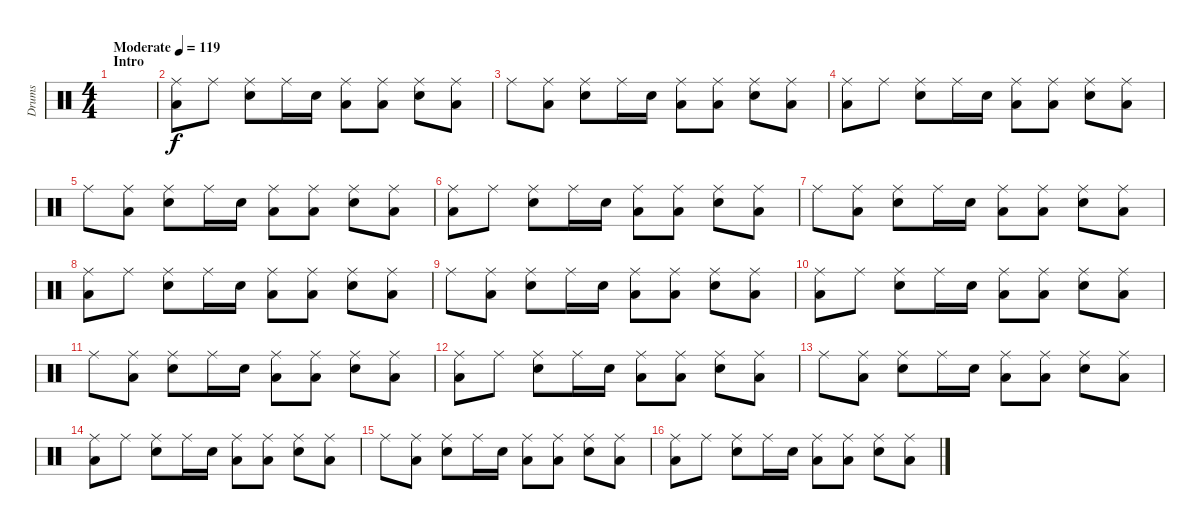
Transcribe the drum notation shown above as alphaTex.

\track ("Drums" "Drums") {instrument percussion}
\staff {score}
\articulation defaults
\ts (4 4)
\section ("" "Intro")
\tempo (119 "Moderate")
\clef neutral
\ks c
|
("Ride (middle)" "Low Floor Tom (hit)").8 "Ride (middle)".8 ("Ride (middle)" "Electric Snare (hit)").8 "Ride (middle)".16 "Electric Snare (hit)".16 ("Ride (middle)" "Low Floor Tom (hit)").8 ("Ride (middle)" "Low Floor Tom (hit)").8 ("Ride (middle)" "Electric Snare (hit)").8 ("Ride (middle)" "Low Floor Tom (hit)").8 |
"Ride (middle)".8 ("Ride (middle)" "Low Floor Tom (hit)").8 ("Ride (middle)" "Electric Snare (hit)").8 "Ride (middle)".16 "Electric Snare (hit)".16 ("Ride (middle)" "Low Floor Tom (hit)").8 ("Ride (middle)" "Low Floor Tom (hit)").8 ("Ride (middle)" "Electric Snare (hit)").8 ("Ride (middle)" "Low Floor Tom (hit)").8 |
("Ride (middle)" "Low Floor Tom (hit)").8 "Ride (middle)".8 ("Ride (middle)" "Electric Snare (hit)").8 "Ride (middle)".16 "Electric Snare (hit)".16 ("Ride (middle)" "Low Floor Tom (hit)").8 ("Ride (middle)" "Low Floor Tom (hit)").8 ("Ride (middle)" "Electric Snare (hit)").8 ("Ride (middle)" "Low Floor Tom (hit)").8 |
"Ride (middle)".8 ("Ride (middle)" "Low Floor Tom (hit)").8 ("Ride (middle)" "Electric Snare (hit)").8 "Ride (middle)".16 "Electric Snare (hit)".16 ("Ride (middle)" "Low Floor Tom (hit)").8 ("Ride (middle)" "Low Floor Tom (hit)").8 ("Ride (middle)" "Electric Snare (hit)").8 ("Ride (middle)" "Low Floor Tom (hit)").8 |
("Ride (middle)" "Low Floor Tom (hit)").8 "Ride (middle)".8 ("Ride (middle)" "Electric Snare (hit)").8 "Ride (middle)".16 "Electric Snare (hit)".16 ("Ride (middle)" "Low Floor Tom (hit)").8 ("Ride (middle)" "Low Floor Tom (hit)").8 ("Ride (middle)" "Electric Snare (hit)").8 ("Ride (middle)" "Low Floor Tom (hit)").8 |
"Ride (middle)".8 ("Ride (middle)" "Low Floor Tom (hit)").8 ("Ride (middle)" "Electric Snare (hit)").8 "Ride (middle)".16 "Electric Snare (hit)".16 ("Ride (middle)" "Low Floor Tom (hit)").8 ("Ride (middle)" "Low Floor Tom (hit)").8 ("Ride (middle)" "Electric Snare (hit)").8 ("Ride (middle)" "Low Floor Tom (hit)").8 |
("Ride (middle)" "Low Floor Tom (hit)").8 "Ride (middle)".8 ("Ride (middle)" "Electric Snare (hit)").8 "Ride (middle)".16 "Electric Snare (hit)".16 ("Ride (middle)" "Low Floor Tom (hit)").8 ("Ride (middle)" "Low Floor Tom (hit)").8 ("Ride (middle)" "Electric Snare (hit)").8 ("Ride (middle)" "Low Floor Tom (hit)").8 |
"Ride (middle)".8 ("Ride (middle)" "Low Floor Tom (hit)").8 ("Ride (middle)" "Electric Snare (hit)").8 "Ride (middle)".16 "Electric Snare (hit)".16 ("Ride (middle)" "Low Floor Tom (hit)").8 ("Ride (middle)" "Low Floor Tom (hit)").8 ("Ride (middle)" "Electric Snare (hit)").8 ("Ride (middle)" "Low Floor Tom (hit)").8 |
("Ride (middle)" "Low Floor Tom (hit)").8 "Ride (middle)".8 ("Ride (middle)" "Electric Snare (hit)").8 "Ride (middle)".16 "Electric Snare (hit)".16 ("Ride (middle)" "Low Floor Tom (hit)").8 ("Ride (middle)" "Low Floor Tom (hit)").8 ("Ride (middle)" "Electric Snare (hit)").8 ("Ride (middle)" "Low Floor Tom (hit)").8 |
"Ride (middle)".8 ("Ride (middle)" "Low Floor Tom (hit)").8 ("Ride (middle)" "Electric Snare (hit)").8 "Ride (middle)".16 "Electric Snare (hit)".16 ("Ride (middle)" "Low Floor Tom (hit)").8 ("Ride (middle)" "Low Floor Tom (hit)").8 ("Ride (middle)" "Electric Snare (hit)").8 ("Ride (middle)" "Low Floor Tom (hit)").8 |
("Ride (middle)" "Low Floor Tom (hit)").8 "Ride (middle)".8 ("Ride (middle)" "Electric Snare (hit)").8 "Ride (middle)".16 "Electric Snare (hit)".16 ("Ride (middle)" "Low Floor Tom (hit)").8 ("Ride (middle)" "Low Floor Tom (hit)").8 ("Ride (middle)" "Electric Snare (hit)").8 ("Ride (middle)" "Low Floor Tom (hit)").8 |
"Ride (middle)".8 ("Ride (middle)" "Low Floor Tom (hit)").8 ("Ride (middle)" "Electric Snare (hit)").8 "Ride (middle)".16 "Electric Snare (hit)".16 ("Ride (middle)" "Low Floor Tom (hit)").8 ("Ride (middle)" "Low Floor Tom (hit)").8 ("Ride (middle)" "Electric Snare (hit)").8 ("Ride (middle)" "Low Floor Tom (hit)").8 |
("Ride (middle)" "Low Floor Tom (hit)").8 "Ride (middle)".8 ("Ride (middle)" "Electric Snare (hit)").8 "Ride (middle)".16 "Electric Snare (hit)".16 ("Ride (middle)" "Low Floor Tom (hit)").8 ("Ride (middle)" "Low Floor Tom (hit)").8 ("Ride (middle)" "Electric Snare (hit)").8 ("Ride (middle)" "Low Floor Tom (hit)").8 |
"Ride (middle)".8 ("Ride (middle)" "Low Floor Tom (hit)").8 ("Ride (middle)" "Electric Snare (hit)").8 "Ride (middle)".16 "Electric Snare (hit)".16 ("Ride (middle)" "Low Floor Tom (hit)").8 ("Ride (middle)" "Low Floor Tom (hit)").8 ("Ride (middle)" "Electric Snare (hit)").8 ("Ride (middle)" "Low Floor Tom (hit)").8 |
("Ride (middle)" "Low Floor Tom (hit)").8 "Ride (middle)".8 ("Ride (middle)" "Electric Snare (hit)").8 "Ride (middle)".16 "Electric Snare (hit)".16 ("Ride (middle)" "Low Floor Tom (hit)").8 ("Ride (middle)" "Low Floor Tom (hit)").8 ("Ride (middle)" "Electric Snare (hit)").8 ("Ride (middle)" "Low Floor Tom (hit)").8
